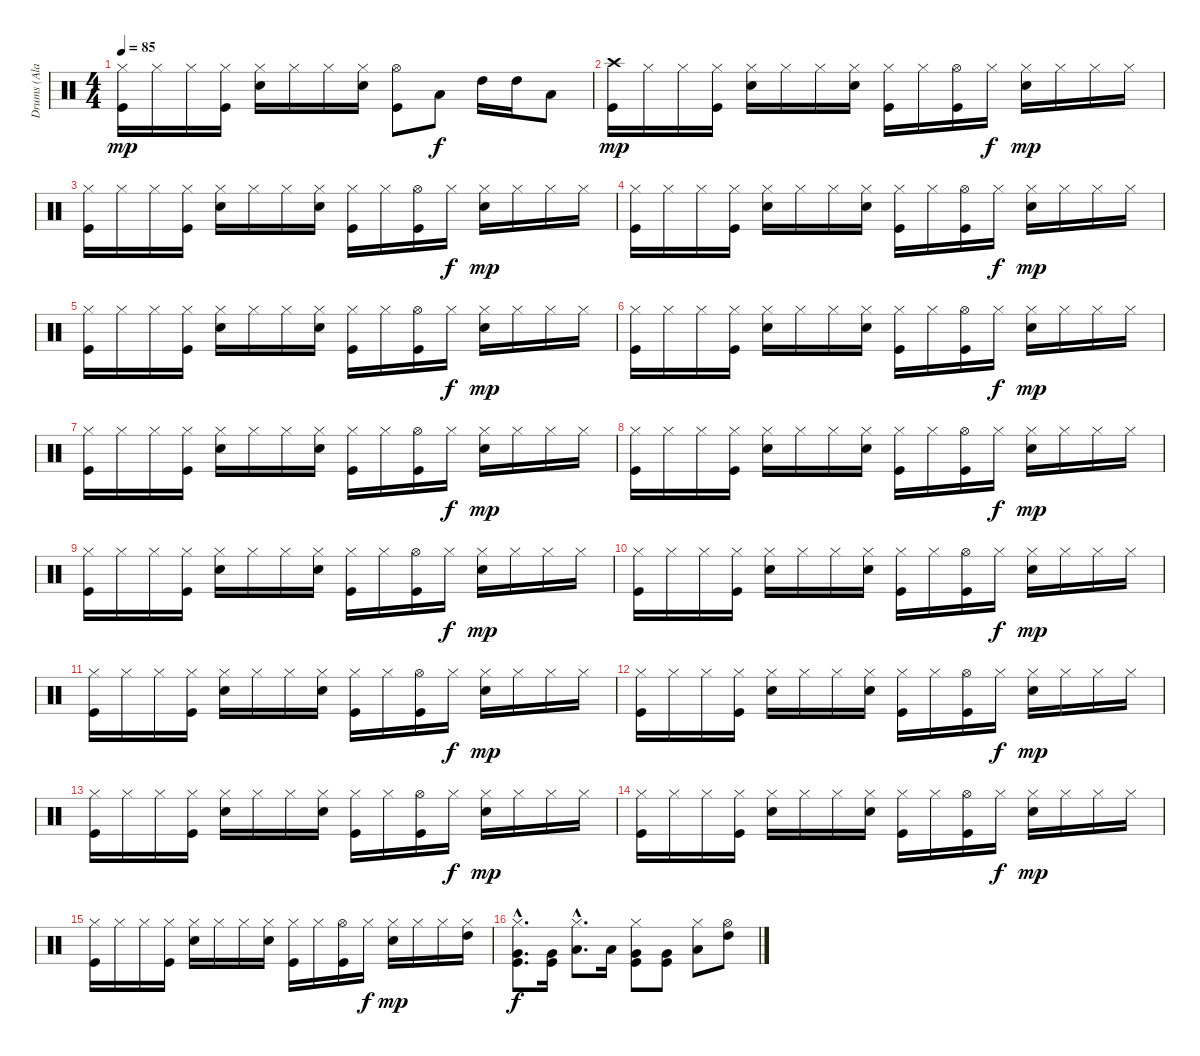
\track ("Drums (Alan White)" "Drums (Ala") {instrument percussion}
\staff {score}
\articulation defaults
\ts (4 4)
\tempo 85
\clef neutral
\ks c
("Hi-Hat (closed)" "Kick (hit)").16{dy mp} "Hi-Hat (closed)".16 "Hi-Hat (closed)".16 ("Hi-Hat (closed)" "Kick (hit)").16 ("Hi-Hat (closed)" "Snare (hit) 2").16 "Hi-Hat (closed)".16 "Hi-Hat (closed)".16 ("Hi-Hat (closed)" "Snare (hit) 2").16 ("Hi-Hat (open)" "Kick (hit)").8 "Low Tom (hit)".8{dy f} "High Tom (hit)".16 "High Tom (hit)".16 "Low Tom (hit)".8 |
("Crash high (hit)" "Kick (hit)").16{dy mp} "Hi-Hat (closed)".16 "Hi-Hat (closed)".16 ("Hi-Hat (closed)" "Kick (hit)").16 ("Hi-Hat (closed)" "Snare (hit) 2").16 "Hi-Hat (closed)".16 "Hi-Hat (closed)".16 ("Hi-Hat (closed)" "Snare (hit) 2").16 ("Hi-Hat (closed)" "Kick (hit)").16 "Hi-Hat (closed)".16 ("Hi-Hat (open)" "Kick (hit)").16 "Hi-Hat (closed)".16{dy f} ("Hi-Hat (closed)" "Snare (hit) 2").16{dy mp} "Hi-Hat (closed)".16 "Hi-Hat (closed)".16 "Hi-Hat (closed)".16 |
("Hi-Hat (closed)" "Kick (hit)").16 "Hi-Hat (closed)".16 "Hi-Hat (closed)".16 ("Hi-Hat (closed)" "Kick (hit)").16 ("Hi-Hat (closed)" "Snare (hit) 2").16 "Hi-Hat (closed)".16 "Hi-Hat (closed)".16 ("Hi-Hat (closed)" "Snare (hit) 2").16 ("Hi-Hat (closed)" "Kick (hit)").16 "Hi-Hat (closed)".16 ("Hi-Hat (open)" "Kick (hit)").16 "Hi-Hat (closed)".16{dy f} ("Hi-Hat (closed)" "Snare (hit) 2").16{dy mp} "Hi-Hat (closed)".16 "Hi-Hat (closed)".16 "Hi-Hat (closed)".16 |
("Hi-Hat (closed)" "Kick (hit)").16 "Hi-Hat (closed)".16 "Hi-Hat (closed)".16 ("Hi-Hat (closed)" "Kick (hit)").16 ("Hi-Hat (closed)" "Snare (hit) 2").16 "Hi-Hat (closed)".16 "Hi-Hat (closed)".16 ("Hi-Hat (closed)" "Snare (hit) 2").16 ("Hi-Hat (closed)" "Kick (hit)").16 "Hi-Hat (closed)".16 ("Hi-Hat (open)" "Kick (hit)").16 "Hi-Hat (closed)".16{dy f} ("Hi-Hat (closed)" "Snare (hit) 2").16{dy mp} "Hi-Hat (closed)".16 "Hi-Hat (closed)".16 "Hi-Hat (closed)".16 |
("Hi-Hat (closed)" "Kick (hit)").16 "Hi-Hat (closed)".16 "Hi-Hat (closed)".16 ("Hi-Hat (closed)" "Kick (hit)").16 ("Hi-Hat (closed)" "Snare (hit) 2").16 "Hi-Hat (closed)".16 "Hi-Hat (closed)".16 ("Hi-Hat (closed)" "Snare (hit) 2").16 ("Hi-Hat (closed)" "Kick (hit)").16 "Hi-Hat (closed)".16 ("Hi-Hat (open)" "Kick (hit)").16 "Hi-Hat (closed)".16{dy f} ("Hi-Hat (closed)" "Snare (hit) 2").16{dy mp} "Hi-Hat (closed)".16 "Hi-Hat (closed)".16 "Hi-Hat (closed)".16 |
("Hi-Hat (closed)" "Kick (hit)").16 "Hi-Hat (closed)".16 "Hi-Hat (closed)".16 ("Hi-Hat (closed)" "Kick (hit)").16 ("Hi-Hat (closed)" "Snare (hit) 2").16 "Hi-Hat (closed)".16 "Hi-Hat (closed)".16 ("Hi-Hat (closed)" "Snare (hit) 2").16 ("Hi-Hat (closed)" "Kick (hit)").16 "Hi-Hat (closed)".16 ("Hi-Hat (open)" "Kick (hit)").16 "Hi-Hat (closed)".16{dy f} ("Hi-Hat (closed)" "Snare (hit) 2").16{dy mp} "Hi-Hat (closed)".16 "Hi-Hat (closed)".16 "Hi-Hat (closed)".16 |
("Hi-Hat (closed)" "Kick (hit)").16 "Hi-Hat (closed)".16 "Hi-Hat (closed)".16 ("Hi-Hat (closed)" "Kick (hit)").16 ("Hi-Hat (closed)" "Snare (hit) 2").16 "Hi-Hat (closed)".16 "Hi-Hat (closed)".16 ("Hi-Hat (closed)" "Snare (hit) 2").16 ("Hi-Hat (closed)" "Kick (hit)").16 "Hi-Hat (closed)".16 ("Hi-Hat (open)" "Kick (hit)").16 "Hi-Hat (closed)".16{dy f} ("Hi-Hat (closed)" "Snare (hit) 2").16{dy mp} "Hi-Hat (closed)".16 "Hi-Hat (closed)".16 "Hi-Hat (closed)".16 |
("Hi-Hat (closed)" "Kick (hit)").16 "Hi-Hat (closed)".16 "Hi-Hat (closed)".16 ("Hi-Hat (closed)" "Kick (hit)").16 ("Hi-Hat (closed)" "Snare (hit) 2").16 "Hi-Hat (closed)".16 "Hi-Hat (closed)".16 ("Hi-Hat (closed)" "Snare (hit) 2").16 ("Hi-Hat (closed)" "Kick (hit)").16 "Hi-Hat (closed)".16 ("Hi-Hat (open)" "Kick (hit)").16 "Hi-Hat (closed)".16{dy f} ("Hi-Hat (closed)" "Snare (hit) 2").16{dy mp} "Hi-Hat (closed)".16 "Hi-Hat (closed)".16 "Hi-Hat (closed)".16 |
("Hi-Hat (closed)" "Kick (hit)").16 "Hi-Hat (closed)".16 "Hi-Hat (closed)".16 ("Hi-Hat (closed)" "Kick (hit)").16 ("Hi-Hat (closed)" "Snare (hit) 2").16 "Hi-Hat (closed)".16 "Hi-Hat (closed)".16 ("Hi-Hat (closed)" "Snare (hit) 2").16 ("Hi-Hat (closed)" "Kick (hit)").16 "Hi-Hat (closed)".16 ("Hi-Hat (open)" "Kick (hit)").16 "Hi-Hat (closed)".16{dy f} ("Hi-Hat (closed)" "Snare (hit) 2").16{dy mp} "Hi-Hat (closed)".16 "Hi-Hat (closed)".16 "Hi-Hat (closed)".16 |
("Hi-Hat (closed)" "Kick (hit)").16 "Hi-Hat (closed)".16 "Hi-Hat (closed)".16 ("Hi-Hat (closed)" "Kick (hit)").16 ("Hi-Hat (closed)" "Snare (hit) 2").16 "Hi-Hat (closed)".16 "Hi-Hat (closed)".16 ("Hi-Hat (closed)" "Snare (hit) 2").16 ("Hi-Hat (closed)" "Kick (hit)").16 "Hi-Hat (closed)".16 ("Hi-Hat (open)" "Kick (hit)").16 "Hi-Hat (closed)".16{dy f} ("Hi-Hat (closed)" "Snare (hit) 2").16{dy mp} "Hi-Hat (closed)".16 "Hi-Hat (closed)".16 "Hi-Hat (closed)".16 |
("Hi-Hat (closed)" "Kick (hit)").16 "Hi-Hat (closed)".16 "Hi-Hat (closed)".16 ("Hi-Hat (closed)" "Kick (hit)").16 ("Hi-Hat (closed)" "Snare (hit) 2").16 "Hi-Hat (closed)".16 "Hi-Hat (closed)".16 ("Hi-Hat (closed)" "Snare (hit) 2").16 ("Hi-Hat (closed)" "Kick (hit)").16 "Hi-Hat (closed)".16 ("Hi-Hat (open)" "Kick (hit)").16 "Hi-Hat (closed)".16{dy f} ("Hi-Hat (closed)" "Snare (hit) 2").16{dy mp} "Hi-Hat (closed)".16 "Hi-Hat (closed)".16 "Hi-Hat (closed)".16 |
("Hi-Hat (closed)" "Kick (hit)").16 "Hi-Hat (closed)".16 "Hi-Hat (closed)".16 ("Hi-Hat (closed)" "Kick (hit)").16 ("Hi-Hat (closed)" "Snare (hit) 2").16 "Hi-Hat (closed)".16 "Hi-Hat (closed)".16 ("Hi-Hat (closed)" "Snare (hit) 2").16 ("Hi-Hat (closed)" "Kick (hit)").16 "Hi-Hat (closed)".16 ("Hi-Hat (open)" "Kick (hit)").16 "Hi-Hat (closed)".16{dy f} ("Hi-Hat (closed)" "Snare (hit) 2").16{dy mp} "Hi-Hat (closed)".16 "Hi-Hat (closed)".16 "Hi-Hat (closed)".16 |
("Hi-Hat (closed)" "Kick (hit)").16 "Hi-Hat (closed)".16 "Hi-Hat (closed)".16 ("Hi-Hat (closed)" "Kick (hit)").16 ("Hi-Hat (closed)" "Snare (hit) 2").16 "Hi-Hat (closed)".16 "Hi-Hat (closed)".16 ("Hi-Hat (closed)" "Snare (hit) 2").16 ("Hi-Hat (closed)" "Kick (hit)").16 "Hi-Hat (closed)".16 ("Hi-Hat (open)" "Kick (hit)").16 "Hi-Hat (closed)".16{dy f} ("Hi-Hat (closed)" "Snare (hit) 2").16{dy mp} "Hi-Hat (closed)".16 "Hi-Hat (closed)".16 "Hi-Hat (closed)".16 |
("Hi-Hat (closed)" "Kick (hit)").16 "Hi-Hat (closed)".16 "Hi-Hat (closed)".16 ("Hi-Hat (closed)" "Kick (hit)").16 ("Hi-Hat (closed)" "Snare (hit) 2").16 "Hi-Hat (closed)".16 "Hi-Hat (closed)".16 ("Hi-Hat (closed)" "Snare (hit) 2").16 ("Hi-Hat (closed)" "Kick (hit)").16 "Hi-Hat (closed)".16 ("Hi-Hat (open)" "Kick (hit)").16 "Hi-Hat (closed)".16{dy f} ("Hi-Hat (closed)" "Snare (hit) 2").16{dy mp} "Hi-Hat (closed)".16 "Hi-Hat (closed)".16 "Hi-Hat (closed)".16 |
("Hi-Hat (closed)" "Kick (hit)").16 "Hi-Hat (closed)".16 "Hi-Hat (closed)".16 ("Hi-Hat (closed)" "Kick (hit)").16 ("Hi-Hat (closed)" "Snare (hit) 2").16 "Hi-Hat (closed)".16 "Hi-Hat (closed)".16 ("Hi-Hat (closed)" "Snare (hit) 2").16 ("Hi-Hat (closed)" "Kick (hit)").16 "Hi-Hat (closed)".16 ("Hi-Hat (open)" "Kick (hit)").16 "Hi-Hat (closed)".16{dy f} ("Hi-Hat (closed)" "Snare (hit) 2").16{dy mp} "Hi-Hat (closed)".16 "Hi-Hat (closed)".16 ("Hi-Hat (closed)" "High Tom (hit)").16 |
("Hi-Hat (closed)"{hac} "Very Low Tom (hit)"{hac} "Kick (hit)"{hac}).8{d dy f} ("Very Low Tom (hit)" "Kick (hit)").16 ("Hi-Hat (closed)"{hac} "Low Tom (hit)"{hac}).8{d} "Low Tom (hit)".16 ("Hi-Hat (closed)" "Very Low Tom (hit)" "Kick (hit)").8 ("Very Low Tom (hit)" "Kick (hit)").8 ("Hi-Hat (closed)" "Low Tom (hit)").8 ("Hi-Hat (open)" "High Tom (hit)").8
